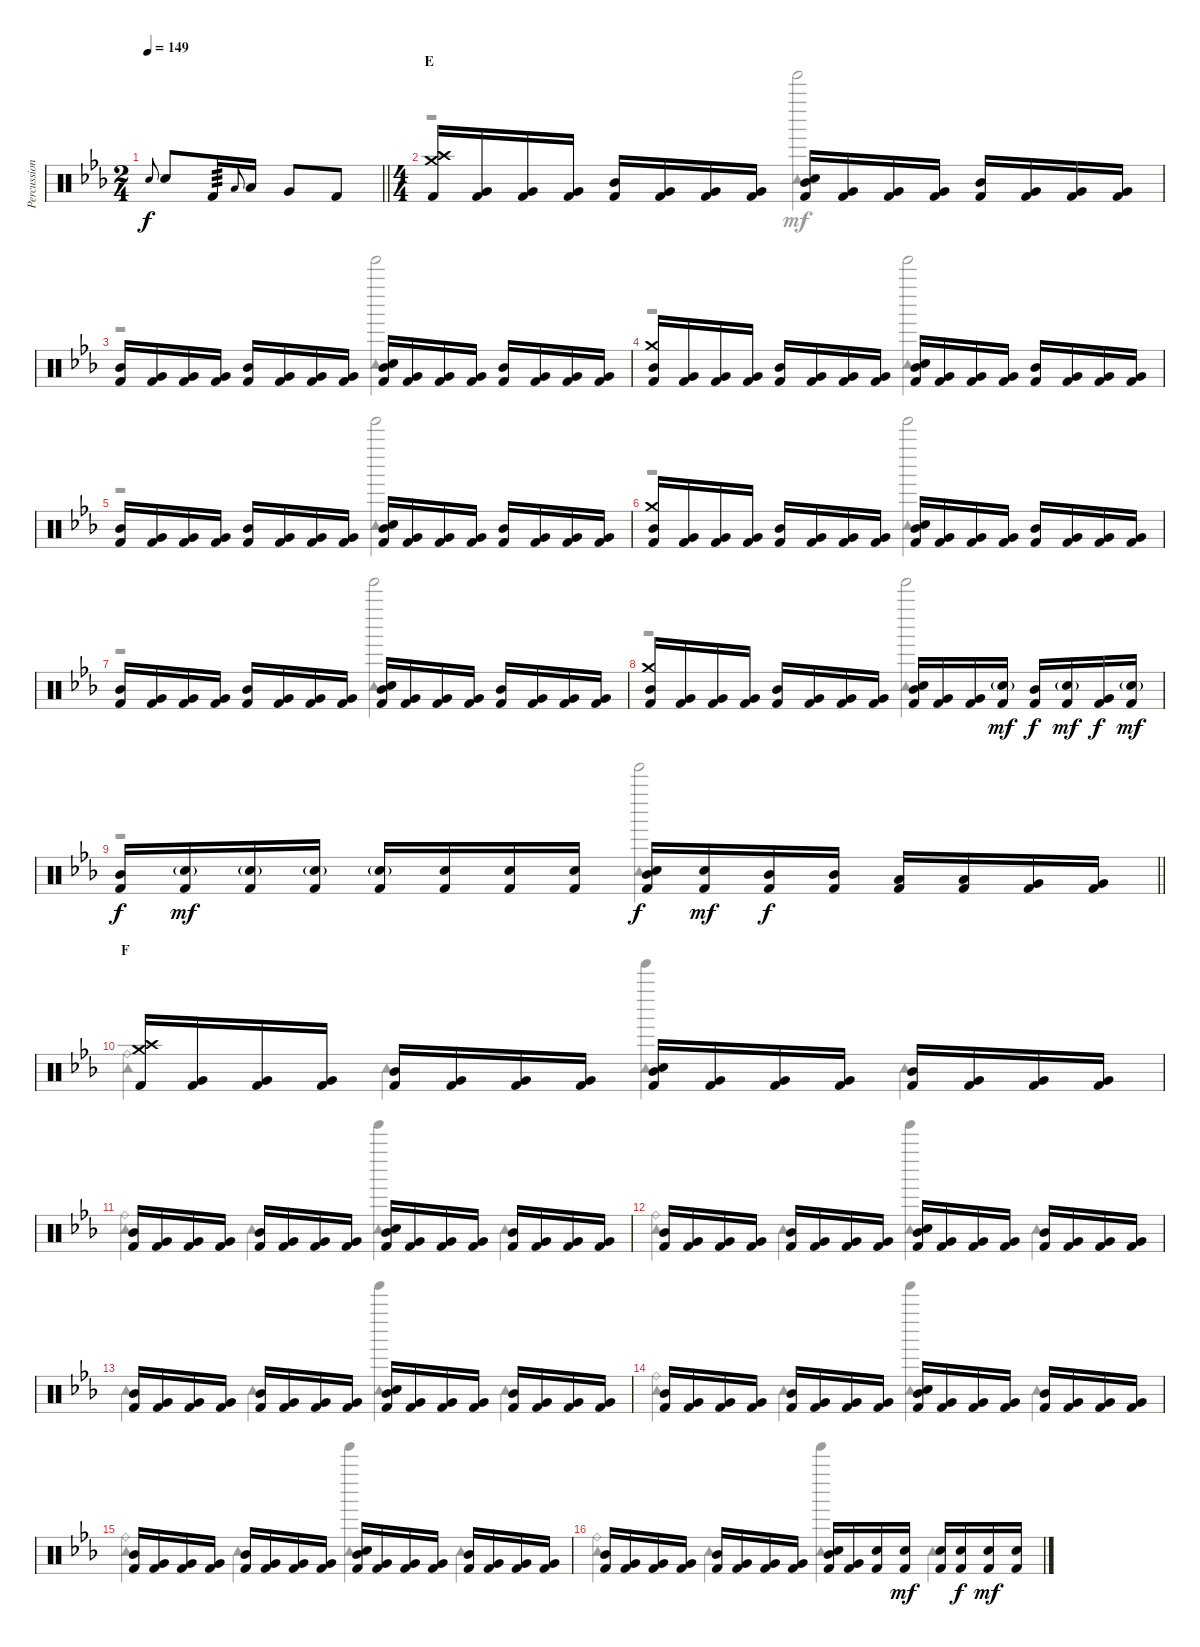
\track ("Percussion" "Percussion") {instrument percussion}
\staff {score}
\articulation defaults
\voice
\ts (2 4)
\tempo 149
\clef neutral
\barLineRight lightlight
\ks cminor "Snare (hit) 2".8{gr onbeat dy f} "Snare (hit) 2".8 "Kick (hit) 2".16{tp 3} "Low Tom (hit)".8{gr onbeat} "Low Tom (hit)".16 "Very Low Tom (hit)".8 "Kick (hit) 2".8
|
\ts (4 4)
\section ("" "E")
("Crash medium (hit)" "Crash high (hit)" "Kick (hit) 2").16 ("Very Low Tom (hit)" "Kick (hit) 2").16 ("Very Low Tom (hit)" "Kick (hit) 2").16 ("Very Low Tom (hit)" "Kick (hit) 2").16 ("Mid Tom (hit)" "Kick (hit) 2").16 ("Very Low Tom (hit)" "Kick (hit) 2").16 ("Very Low Tom (hit)" "Kick (hit) 2").16 ("Very Low Tom (hit)" "Kick (hit) 2").16 ("Mid Tom (hit)" "Snare (hit) 2" "Kick (hit) 2").16 ("Very Low Tom (hit)" "Kick (hit) 2").16 ("Very Low Tom (hit)" "Kick (hit) 2").16 ("Very Low Tom (hit)" "Kick (hit) 2").16 ("Mid Tom (hit)" "Kick (hit) 2").16 ("Very Low Tom (hit)" "Kick (hit) 2").16 ("Very Low Tom (hit)" "Kick (hit) 2").16 ("Very Low Tom (hit)" "Kick (hit) 2").16 |
("Mid Tom (hit)" "Kick (hit) 2").16 ("Very Low Tom (hit)" "Kick (hit) 2").16 ("Very Low Tom (hit)" "Kick (hit) 2").16 ("Very Low Tom (hit)" "Kick (hit) 2").16 ("Mid Tom (hit)" "Kick (hit) 2").16 ("Very Low Tom (hit)" "Kick (hit) 2").16 ("Very Low Tom (hit)" "Kick (hit) 2").16 ("Very Low Tom (hit)" "Kick (hit) 2").16 ("Mid Tom (hit)" "Snare (hit) 2" "Kick (hit) 2").16 ("Very Low Tom (hit)" "Kick (hit) 2").16 ("Very Low Tom (hit)" "Kick (hit) 2").16 ("Very Low Tom (hit)" "Kick (hit) 2").16 ("Mid Tom (hit)" "Kick (hit) 2").16 ("Very Low Tom (hit)" "Kick (hit) 2").16 ("Very Low Tom (hit)" "Kick (hit) 2").16 ("Very Low Tom (hit)" "Kick (hit) 2").16 |
("Crash medium (hit)" "Mid Tom (hit)" "Kick (hit) 2").16 ("Very Low Tom (hit)" "Kick (hit) 2").16 ("Very Low Tom (hit)" "Kick (hit) 2").16 ("Very Low Tom (hit)" "Kick (hit) 2").16 ("Mid Tom (hit)" "Kick (hit) 2").16 ("Very Low Tom (hit)" "Kick (hit) 2").16 ("Very Low Tom (hit)" "Kick (hit) 2").16 ("Very Low Tom (hit)" "Kick (hit) 2").16 ("Mid Tom (hit)" "Snare (hit) 2" "Kick (hit) 2").16 ("Very Low Tom (hit)" "Kick (hit) 2").16 ("Very Low Tom (hit)" "Kick (hit) 2").16 ("Very Low Tom (hit)" "Kick (hit) 2").16 ("Mid Tom (hit)" "Kick (hit) 2").16 ("Very Low Tom (hit)" "Kick (hit) 2").16 ("Very Low Tom (hit)" "Kick (hit) 2").16 ("Very Low Tom (hit)" "Kick (hit) 2").16 |
("Mid Tom (hit)" "Kick (hit) 2").16 ("Very Low Tom (hit)" "Kick (hit) 2").16 ("Very Low Tom (hit)" "Kick (hit) 2").16 ("Very Low Tom (hit)" "Kick (hit) 2").16 ("Mid Tom (hit)" "Kick (hit) 2").16 ("Very Low Tom (hit)" "Kick (hit) 2").16 ("Very Low Tom (hit)" "Kick (hit) 2").16 ("Very Low Tom (hit)" "Kick (hit) 2").16 ("Mid Tom (hit)" "Snare (hit) 2" "Kick (hit) 2").16 ("Very Low Tom (hit)" "Kick (hit) 2").16 ("Very Low Tom (hit)" "Kick (hit) 2").16 ("Very Low Tom (hit)" "Kick (hit) 2").16 ("Mid Tom (hit)" "Kick (hit) 2").16 ("Very Low Tom (hit)" "Kick (hit) 2").16 ("Very Low Tom (hit)" "Kick (hit) 2").16 ("Very Low Tom (hit)" "Kick (hit) 2").16 |
("Crash medium (hit)" "Mid Tom (hit)" "Kick (hit) 2").16 ("Very Low Tom (hit)" "Kick (hit) 2").16 ("Very Low Tom (hit)" "Kick (hit) 2").16 ("Very Low Tom (hit)" "Kick (hit) 2").16 ("Mid Tom (hit)" "Kick (hit) 2").16 ("Very Low Tom (hit)" "Kick (hit) 2").16 ("Very Low Tom (hit)" "Kick (hit) 2").16 ("Very Low Tom (hit)" "Kick (hit) 2").16 ("Mid Tom (hit)" "Snare (hit) 2" "Kick (hit) 2").16 ("Very Low Tom (hit)" "Kick (hit) 2").16 ("Very Low Tom (hit)" "Kick (hit) 2").16 ("Very Low Tom (hit)" "Kick (hit) 2").16 ("Mid Tom (hit)" "Kick (hit) 2").16 ("Very Low Tom (hit)" "Kick (hit) 2").16 ("Very Low Tom (hit)" "Kick (hit) 2").16 ("Very Low Tom (hit)" "Kick (hit) 2").16 |
("Mid Tom (hit)" "Kick (hit) 2").16 ("Very Low Tom (hit)" "Kick (hit) 2").16 ("Very Low Tom (hit)" "Kick (hit) 2").16 ("Very Low Tom (hit)" "Kick (hit) 2").16 ("Mid Tom (hit)" "Kick (hit) 2").16 ("Very Low Tom (hit)" "Kick (hit) 2").16 ("Very Low Tom (hit)" "Kick (hit) 2").16 ("Very Low Tom (hit)" "Kick (hit) 2").16 ("Mid Tom (hit)" "Snare (hit) 2" "Kick (hit) 2").16 ("Very Low Tom (hit)" "Kick (hit) 2").16 ("Very Low Tom (hit)" "Kick (hit) 2").16 ("Very Low Tom (hit)" "Kick (hit) 2").16 ("Mid Tom (hit)" "Kick (hit) 2").16 ("Very Low Tom (hit)" "Kick (hit) 2").16 ("Very Low Tom (hit)" "Kick (hit) 2").16 ("Very Low Tom (hit)" "Kick (hit) 2").16 |
("Crash medium (hit)" "Mid Tom (hit)" "Kick (hit) 2").16 ("Very Low Tom (hit)" "Kick (hit) 2").16 ("Very Low Tom (hit)" "Kick (hit) 2").16 ("Very Low Tom (hit)" "Kick (hit) 2").16 ("Mid Tom (hit)" "Kick (hit) 2").16 ("Very Low Tom (hit)" "Kick (hit) 2").16 ("Very Low Tom (hit)" "Kick (hit) 2").16 ("Very Low Tom (hit)" "Kick (hit) 2").16 ("Mid Tom (hit)" "Snare (hit) 2" "Kick (hit) 2").16 ("Very Low Tom (hit)" "Kick (hit) 2").16 ("Very Low Tom (hit)" "Kick (hit) 2").16 ("Snare (hit) 2"{g} "Kick (hit) 2").16{dy mf} ("Mid Tom (hit)" "Kick (hit) 2").16{dy f} ("Snare (hit) 2"{g} "Kick (hit) 2").16{dy mf} ("Very Low Tom (hit)" "Kick (hit) 2").16{dy f} ("Snare (hit) 2"{g} "Kick (hit) 2").16{dy mf} |
\barLineRight lightlight
("Mid Tom (hit)" "Kick (hit) 2").16{dy f} ("Snare (hit) 2"{g} "Kick (hit) 2").16{dy mf} ("Snare (hit) 2"{g} "Kick (hit) 2").16 ("Snare (hit) 2"{g} "Kick (hit) 2").16 ("Snare (hit) 2"{g} "Kick (hit) 2").16 ("Snare (hit) 2" "Kick (hit) 2").16 ("Snare (hit) 2" "Kick (hit) 2").16 ("Snare (hit) 2" "Kick (hit) 2").16 ("Mid Tom (hit)" "Snare (hit) 2" "Kick (hit) 2").16{dy f} ("Snare (hit) 2" "Kick (hit) 2").16{dy mf} ("Mid Tom (hit)" "Kick (hit) 2").16{dy f} ("Mid Tom (hit)" "Kick (hit) 2").16 ("Low Tom (hit)" "Kick (hit) 2").16 ("Low Tom (hit)" "Kick (hit) 2").16 ("Very Low Tom (hit)" "Kick (hit) 2").16 ("Very Low Tom (hit)" "Kick (hit) 2").16 |
\section ("" "F")
("Crash medium (hit)" "Crash high (hit)" "Kick (hit) 2").16 ("Very Low Tom (hit)" "Kick (hit) 2").16 ("Very Low Tom (hit)" "Kick (hit) 2").16 ("Very Low Tom (hit)" "Kick (hit) 2").16 ("Mid Tom (hit)" "Kick (hit) 2").16 ("Very Low Tom (hit)" "Kick (hit) 2").16 ("Very Low Tom (hit)" "Kick (hit) 2").16 ("Very Low Tom (hit)" "Kick (hit) 2").16 ("Mid Tom (hit)" "Snare (hit) 2" "Kick (hit) 2").16 ("Very Low Tom (hit)" "Kick (hit) 2").16 ("Very Low Tom (hit)" "Kick (hit) 2").16 ("Very Low Tom (hit)" "Kick (hit) 2").16 ("Mid Tom (hit)" "Kick (hit) 2").16 ("Very Low Tom (hit)" "Kick (hit) 2").16 ("Very Low Tom (hit)" "Kick (hit) 2").16 ("Very Low Tom (hit)" "Kick (hit) 2").16 |
("Mid Tom (hit)" "Kick (hit) 2").16 ("Very Low Tom (hit)" "Kick (hit) 2").16 ("Very Low Tom (hit)" "Kick (hit) 2").16 ("Very Low Tom (hit)" "Kick (hit) 2").16 ("Mid Tom (hit)" "Kick (hit) 2").16 ("Very Low Tom (hit)" "Kick (hit) 2").16 ("Very Low Tom (hit)" "Kick (hit) 2").16 ("Very Low Tom (hit)" "Kick (hit) 2").16 ("Mid Tom (hit)" "Snare (hit) 2" "Kick (hit) 2").16 ("Very Low Tom (hit)" "Kick (hit) 2").16 ("Very Low Tom (hit)" "Kick (hit) 2").16 ("Very Low Tom (hit)" "Kick (hit) 2").16 ("Mid Tom (hit)" "Kick (hit) 2").16 ("Very Low Tom (hit)" "Kick (hit) 2").16 ("Very Low Tom (hit)" "Kick (hit) 2").16 ("Very Low Tom (hit)" "Kick (hit) 2").16 |
("Mid Tom (hit)" "Kick (hit) 2").16 ("Very Low Tom (hit)" "Kick (hit) 2").16 ("Very Low Tom (hit)" "Kick (hit) 2").16 ("Very Low Tom (hit)" "Kick (hit) 2").16 ("Mid Tom (hit)" "Kick (hit) 2").16 ("Very Low Tom (hit)" "Kick (hit) 2").16 ("Very Low Tom (hit)" "Kick (hit) 2").16 ("Very Low Tom (hit)" "Kick (hit) 2").16 ("Mid Tom (hit)" "Snare (hit) 2" "Kick (hit) 2").16 ("Very Low Tom (hit)" "Kick (hit) 2").16 ("Very Low Tom (hit)" "Kick (hit) 2").16 ("Very Low Tom (hit)" "Kick (hit) 2").16 ("Mid Tom (hit)" "Kick (hit) 2").16 ("Very Low Tom (hit)" "Kick (hit) 2").16 ("Very Low Tom (hit)" "Kick (hit) 2").16 ("Very Low Tom (hit)" "Kick (hit) 2").16 |
("Mid Tom (hit)" "Kick (hit) 2").16 ("Very Low Tom (hit)" "Kick (hit) 2").16 ("Very Low Tom (hit)" "Kick (hit) 2").16 ("Very Low Tom (hit)" "Kick (hit) 2").16 ("Mid Tom (hit)" "Kick (hit) 2").16 ("Very Low Tom (hit)" "Kick (hit) 2").16 ("Very Low Tom (hit)" "Kick (hit) 2").16 ("Very Low Tom (hit)" "Kick (hit) 2").16 ("Mid Tom (hit)" "Snare (hit) 2" "Kick (hit) 2").16 ("Very Low Tom (hit)" "Kick (hit) 2").16 ("Very Low Tom (hit)" "Kick (hit) 2").16 ("Very Low Tom (hit)" "Kick (hit) 2").16 ("Mid Tom (hit)" "Kick (hit) 2").16 ("Very Low Tom (hit)" "Kick (hit) 2").16 ("Very Low Tom (hit)" "Kick (hit) 2").16 ("Very Low Tom (hit)" "Kick (hit) 2").16 |
("Mid Tom (hit)" "Kick (hit) 2").16 ("Very Low Tom (hit)" "Kick (hit) 2").16 ("Very Low Tom (hit)" "Kick (hit) 2").16 ("Very Low Tom (hit)" "Kick (hit) 2").16 ("Mid Tom (hit)" "Kick (hit) 2").16 ("Very Low Tom (hit)" "Kick (hit) 2").16 ("Very Low Tom (hit)" "Kick (hit) 2").16 ("Very Low Tom (hit)" "Kick (hit) 2").16 ("Mid Tom (hit)" "Snare (hit) 2" "Kick (hit) 2").16 ("Very Low Tom (hit)" "Kick (hit) 2").16 ("Very Low Tom (hit)" "Kick (hit) 2").16 ("Very Low Tom (hit)" "Kick (hit) 2").16 ("Mid Tom (hit)" "Kick (hit) 2").16 ("Very Low Tom (hit)" "Kick (hit) 2").16 ("Very Low Tom (hit)" "Kick (hit) 2").16 ("Very Low Tom (hit)" "Kick (hit) 2").16 |
("Mid Tom (hit)" "Kick (hit) 2").16 ("Very Low Tom (hit)" "Kick (hit) 2").16 ("Very Low Tom (hit)" "Kick (hit) 2").16 ("Very Low Tom (hit)" "Kick (hit) 2").16 ("Mid Tom (hit)" "Kick (hit) 2").16 ("Very Low Tom (hit)" "Kick (hit) 2").16 ("Very Low Tom (hit)" "Kick (hit) 2").16 ("Very Low Tom (hit)" "Kick (hit) 2").16 ("Mid Tom (hit)" "Snare (hit) 2" "Kick (hit) 2").16 ("Very Low Tom (hit)" "Kick (hit) 2").16 ("Very Low Tom (hit)" "Kick (hit) 2").16 ("Very Low Tom (hit)" "Kick (hit) 2").16 ("Mid Tom (hit)" "Kick (hit) 2").16 ("Very Low Tom (hit)" "Kick (hit) 2").16 ("Very Low Tom (hit)" "Kick (hit) 2").16 ("Very Low Tom (hit)" "Kick (hit) 2").16 |
("Mid Tom (hit)" "Kick (hit) 2").16 ("Very Low Tom (hit)" "Kick (hit) 2").16 ("Very Low Tom (hit)" "Kick (hit) 2").16 ("Very Low Tom (hit)" "Kick (hit) 2").16 ("Mid Tom (hit)" "Kick (hit) 2").16 ("Very Low Tom (hit)" "Kick (hit) 2").16 ("Very Low Tom (hit)" "Kick (hit) 2").16 ("Very Low Tom (hit)" "Kick (hit) 2").16 ("Mid Tom (hit)" "Snare (hit) 2" "Kick (hit) 2").16 ("Very Low Tom (hit)" "Kick (hit) 2").16 ("Snare (hit) 2" "Kick (hit) 2").16 ("Snare (hit) 2" "Kick (hit) 2").16{dy mf} ("Snare (hit) 2" "Kick (hit) 2").16 ("Snare (hit) 2" "Kick (hit) 2").16{dy f} ("Snare (hit) 2" "Kick (hit) 2").16{dy mf} ("Snare (hit) 2" "Kick (hit) 2").16
\voice
\clef neutral
\ottava regular
\simile none
\barLineRight lightlight
\ks cminor
|
r.2 ("Tinkle Bell (hit)" "Tambourine (hit)").2 |
r.2 ("Tinkle Bell (hit)" "Tambourine (hit)").2 |
r.2 ("Tinkle Bell (hit)" "Tambourine (hit)").2 |
r.2 ("Tinkle Bell (hit)" "Tambourine (hit)").2 |
r.2 ("Tinkle Bell (hit)" "Tambourine (hit)").2 |
r.2 ("Tinkle Bell (hit)" "Tambourine (hit)").2 |
r.2 ("Tinkle Bell (hit)" "Tambourine (hit)").2 |
\barLineRight lightlight
r.2 ("Tinkle Bell (hit)" "Tambourine (hit)").2 |
("Ride (bell)" "Tambourine (hit)").4 "Tambourine (hit)".4 ("Tinkle Bell (hit)" "Tambourine (hit)").4 "Tambourine (hit)".4 |
("Ride (bell)" "Tambourine (hit)").4 "Tambourine (hit)".4 ("Tinkle Bell (hit)" "Tambourine (hit)").4 "Tambourine (hit)".4 |
("Ride (bell)" "Tambourine (hit)").4 "Tambourine (hit)".4 ("Tinkle Bell (hit)" "Tambourine (hit)").4 "Tambourine (hit)".4 |
"Tambourine (hit)".4 "Tambourine (hit)".4 ("Tinkle Bell (hit)" "Tambourine (hit)").4 "Tambourine (hit)".4 |
("Ride (bell)" "Tambourine (hit)").4 "Tambourine (hit)".4 ("Tinkle Bell (hit)" "Tambourine (hit)").4 "Tambourine (hit)".4 |
("Ride (bell)" "Tambourine (hit)").4 "Tambourine (hit)".4 ("Tinkle Bell (hit)" "Tambourine (hit)").4 "Tambourine (hit)".4 |
("Ride (bell)" "Tambourine (hit)").4 "Tambourine (hit)".4 ("Tinkle Bell (hit)" "Tambourine (hit)").4 "Tambourine (hit)".4
